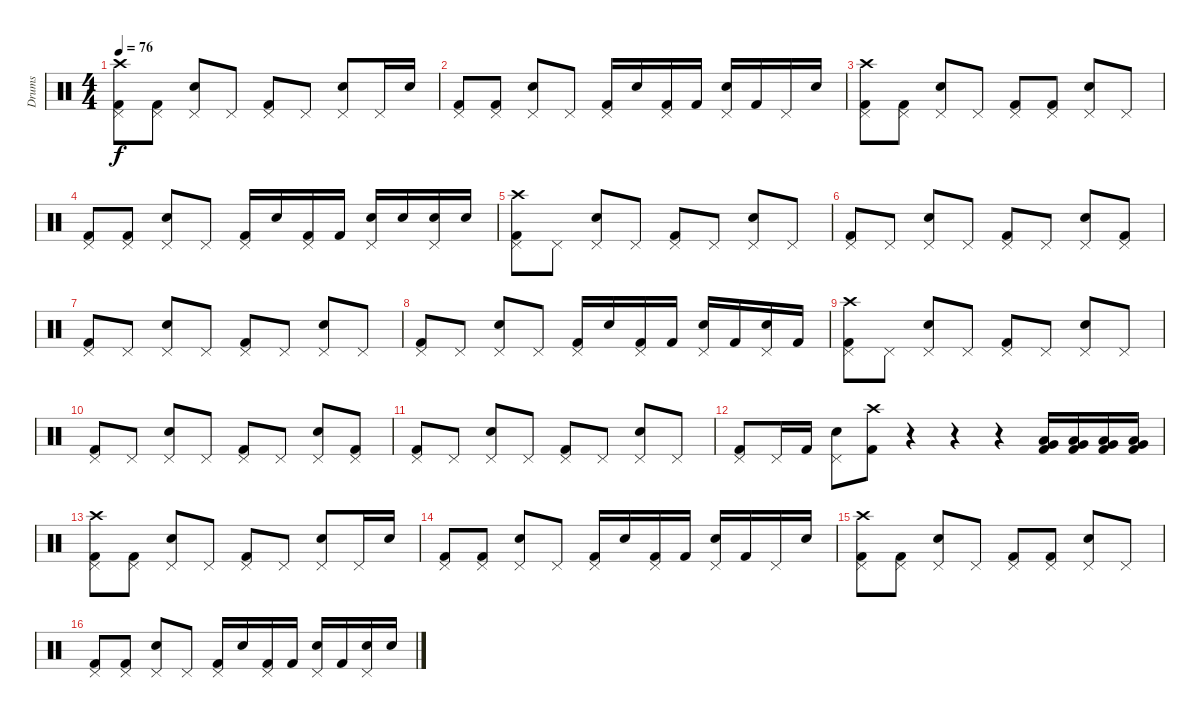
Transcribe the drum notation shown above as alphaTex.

\track ("Drums" "Drums") {instrument percussion}
\staff {score}
\articulation defaults
\ts (4 4)
\tempo 76
\clef neutral
\ks c
("Crash high (hit)" "Pedal Hi-Hat (hit)" "Kick (hit) 2").8{dy f} ("Pedal Hi-Hat (hit)" "Kick (hit) 2").8 ("Pedal Hi-Hat (hit)" "Snare (hit) 2").8 "Pedal Hi-Hat (hit)".8 ("Pedal Hi-Hat (hit)" "Kick (hit) 2").8 "Pedal Hi-Hat (hit)".8 ("Pedal Hi-Hat (hit)" "Snare (hit) 2").8 "Pedal Hi-Hat (hit)".16 "Snare (hit) 2".16 |
("Pedal Hi-Hat (hit)" "Kick (hit) 2").8 ("Pedal Hi-Hat (hit)" "Kick (hit) 2").8 ("Pedal Hi-Hat (hit)" "Snare (hit) 2").8 "Pedal Hi-Hat (hit)".8 ("Pedal Hi-Hat (hit)" "Kick (hit) 2").16 "Snare (hit) 2".16 ("Pedal Hi-Hat (hit)" "Kick (hit) 2").16 "Kick (hit) 2".16 ("Pedal Hi-Hat (hit)" "Snare (hit) 2").16 "Kick (hit) 2".16 "Pedal Hi-Hat (hit)".16 "Snare (hit) 2".16 |
("Crash high (hit)" "Pedal Hi-Hat (hit)" "Kick (hit) 2").8 ("Pedal Hi-Hat (hit)" "Kick (hit) 2").8 ("Pedal Hi-Hat (hit)" "Snare (hit) 2").8 "Pedal Hi-Hat (hit)".8 ("Pedal Hi-Hat (hit)" "Kick (hit) 2").8 ("Pedal Hi-Hat (hit)" "Kick (hit) 2").8 ("Pedal Hi-Hat (hit)" "Snare (hit) 2").8 "Pedal Hi-Hat (hit)".8 |
("Pedal Hi-Hat (hit)" "Kick (hit) 2").8 ("Pedal Hi-Hat (hit)" "Kick (hit) 2").8 ("Pedal Hi-Hat (hit)" "Snare (hit) 2").8 "Pedal Hi-Hat (hit)".8 ("Pedal Hi-Hat (hit)" "Kick (hit) 2").16 "Snare (hit) 2".16 ("Pedal Hi-Hat (hit)" "Kick (hit) 2").16 "Kick (hit) 2".16 ("Pedal Hi-Hat (hit)" "Snare (hit) 2").16 "Snare (hit) 2".16 ("Pedal Hi-Hat (hit)" "Snare (hit) 2").16 "Snare (hit) 2".16 |
("Crash high (hit)" "Pedal Hi-Hat (hit)" "Kick (hit) 2").8 "Pedal Hi-Hat (hit)".8 ("Pedal Hi-Hat (hit)" "Snare (hit) 2").8 "Pedal Hi-Hat (hit)".8 ("Pedal Hi-Hat (hit)" "Kick (hit) 2").8 "Pedal Hi-Hat (hit)".8 ("Pedal Hi-Hat (hit)" "Snare (hit) 2").8 "Pedal Hi-Hat (hit)".8 |
("Pedal Hi-Hat (hit)" "Kick (hit) 2").8 "Pedal Hi-Hat (hit)".8 ("Pedal Hi-Hat (hit)" "Snare (hit) 2").8 "Pedal Hi-Hat (hit)".8 ("Pedal Hi-Hat (hit)" "Kick (hit) 2").8 "Pedal Hi-Hat (hit)".8 ("Pedal Hi-Hat (hit)" "Snare (hit) 2").8 ("Pedal Hi-Hat (hit)" "Kick (hit) 2").8 |
("Pedal Hi-Hat (hit)" "Kick (hit) 2").8 "Pedal Hi-Hat (hit)".8 ("Pedal Hi-Hat (hit)" "Snare (hit) 2").8 "Pedal Hi-Hat (hit)".8 ("Pedal Hi-Hat (hit)" "Kick (hit) 2").8 "Pedal Hi-Hat (hit)".8 ("Pedal Hi-Hat (hit)" "Snare (hit) 2").8 "Pedal Hi-Hat (hit)".8 |
("Pedal Hi-Hat (hit)" "Kick (hit) 2").8 "Pedal Hi-Hat (hit)".8 ("Pedal Hi-Hat (hit)" "Snare (hit) 2").8 "Pedal Hi-Hat (hit)".8 ("Pedal Hi-Hat (hit)" "Kick (hit) 2").16 "Snare (hit) 2".16 ("Pedal Hi-Hat (hit)" "Kick (hit) 2").16 "Kick (hit) 2".16 ("Pedal Hi-Hat (hit)" "Snare (hit) 2").16 "Kick (hit) 2".16 ("Pedal Hi-Hat (hit)" "Snare (hit) 2").16 "Kick (hit) 2".16 |
("Crash high (hit)" "Pedal Hi-Hat (hit)" "Kick (hit) 2").8 "Pedal Hi-Hat (hit)".8 ("Pedal Hi-Hat (hit)" "Snare (hit) 2").8 "Pedal Hi-Hat (hit)".8 ("Pedal Hi-Hat (hit)" "Kick (hit) 2").8 "Pedal Hi-Hat (hit)".8 ("Pedal Hi-Hat (hit)" "Snare (hit) 2").8 "Pedal Hi-Hat (hit)".8 |
("Pedal Hi-Hat (hit)" "Kick (hit) 2").8 "Pedal Hi-Hat (hit)".8 ("Pedal Hi-Hat (hit)" "Snare (hit) 2").8 "Pedal Hi-Hat (hit)".8 ("Pedal Hi-Hat (hit)" "Kick (hit) 2").8 "Pedal Hi-Hat (hit)".8 ("Pedal Hi-Hat (hit)" "Snare (hit) 2").8 ("Pedal Hi-Hat (hit)" "Kick (hit) 2").8 |
("Pedal Hi-Hat (hit)" "Kick (hit) 2").8 "Pedal Hi-Hat (hit)".8 ("Pedal Hi-Hat (hit)" "Snare (hit) 2").8 "Pedal Hi-Hat (hit)".8 ("Pedal Hi-Hat (hit)" "Kick (hit) 2").8 "Pedal Hi-Hat (hit)".8 ("Pedal Hi-Hat (hit)" "Snare (hit) 2").8 "Pedal Hi-Hat (hit)".8 |
("Pedal Hi-Hat (hit)" "Kick (hit) 2").8 "Pedal Hi-Hat (hit)".16 "Kick (hit) 2".16 ("Pedal Hi-Hat (hit)" "Snare (hit) 2").8 ("Crash high (hit)" "Kick (hit) 2").8 r.4 r.4 r.4 ("Low Tom (hit)" "Very Low Tom (hit)" "Kick (hit) 2").16 ("Low Tom (hit)" "Very Low Tom (hit)" "Kick (hit) 2").16 ("Low Tom (hit)" "Very Low Tom (hit)" "Kick (hit) 2").16 ("Low Tom (hit)" "Very Low Tom (hit)" "Kick (hit) 2").16 |
("Crash high (hit)" "Pedal Hi-Hat (hit)" "Kick (hit) 2").8 ("Pedal Hi-Hat (hit)" "Kick (hit) 2").8 ("Pedal Hi-Hat (hit)" "Snare (hit) 2").8 "Pedal Hi-Hat (hit)".8 ("Pedal Hi-Hat (hit)" "Kick (hit) 2").8 "Pedal Hi-Hat (hit)".8 ("Pedal Hi-Hat (hit)" "Snare (hit) 2").8 "Pedal Hi-Hat (hit)".16 "Snare (hit) 2".16 |
("Pedal Hi-Hat (hit)" "Kick (hit) 2").8 ("Pedal Hi-Hat (hit)" "Kick (hit) 2").8 ("Pedal Hi-Hat (hit)" "Snare (hit) 2").8 "Pedal Hi-Hat (hit)".8 ("Pedal Hi-Hat (hit)" "Kick (hit) 2").16 "Snare (hit) 2".16 ("Pedal Hi-Hat (hit)" "Kick (hit) 2").16 "Kick (hit) 2".16 ("Pedal Hi-Hat (hit)" "Snare (hit) 2").16 "Kick (hit) 2".16 "Pedal Hi-Hat (hit)".16 "Snare (hit) 2".16 |
("Crash high (hit)" "Pedal Hi-Hat (hit)" "Kick (hit) 2").8 ("Pedal Hi-Hat (hit)" "Kick (hit) 2").8 ("Pedal Hi-Hat (hit)" "Snare (hit) 2").8 "Pedal Hi-Hat (hit)".8 ("Pedal Hi-Hat (hit)" "Kick (hit) 2").8 ("Pedal Hi-Hat (hit)" "Kick (hit) 2").8 ("Pedal Hi-Hat (hit)" "Snare (hit) 2").8 "Pedal Hi-Hat (hit)".8 |
("Pedal Hi-Hat (hit)" "Kick (hit) 2").8 ("Pedal Hi-Hat (hit)" "Kick (hit) 2").8 ("Pedal Hi-Hat (hit)" "Snare (hit) 2").8 "Pedal Hi-Hat (hit)".8 ("Pedal Hi-Hat (hit)" "Kick (hit) 2").16 "Snare (hit) 2".16 ("Pedal Hi-Hat (hit)" "Kick (hit) 2").16 "Kick (hit) 2".16 ("Pedal Hi-Hat (hit)" "Snare (hit) 2").16 "Kick (hit) 2".16 ("Pedal Hi-Hat (hit)" "Snare (hit) 2").16 "Snare (hit) 2".16
